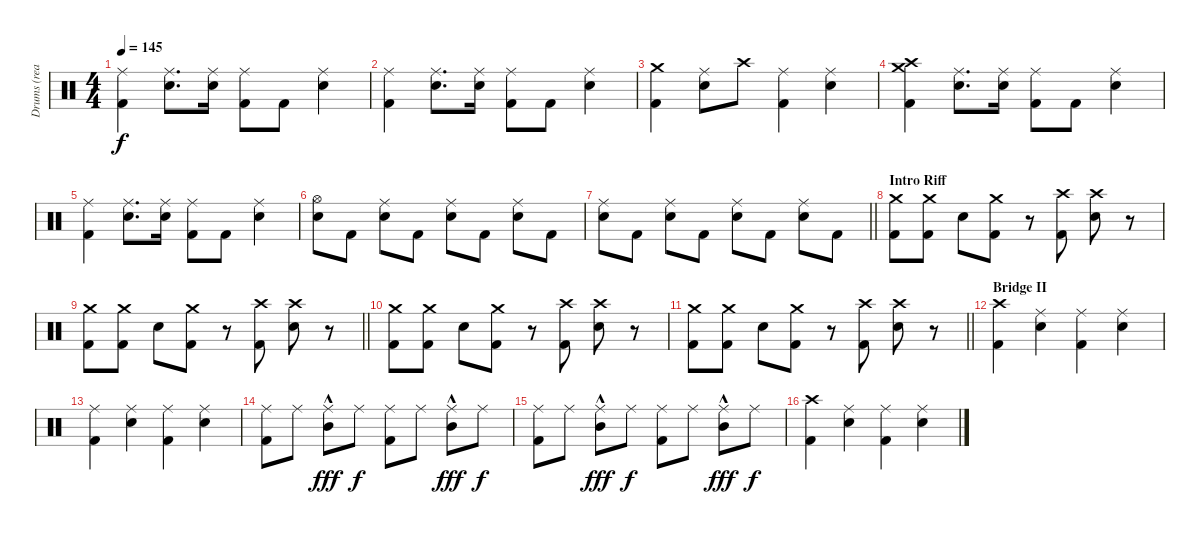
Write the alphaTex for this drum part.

\track ("Drums (real)" "Drums (rea") {instrument percussion}
\staff {score}
\articulation defaults
\ts (4 4)
\tempo 145
\clef neutral
\ks c
("Ride (middle)" "Kick (hit) 2").4{dy f} ("Ride (middle)" "Snare (hit) 2").8{d} ("Ride (middle)" "Snare (hit) 2").16 ("Ride (middle)" "Kick (hit) 2").8 "Kick (hit) 2".8 ("Ride (middle)" "Snare (hit) 2").4 |
("Ride (middle)" "Kick (hit) 2").4 ("Ride (middle)" "Snare (hit) 2").8{d} ("Ride (middle)" "Snare (hit) 2").16 ("Ride (middle)" "Kick (hit) 2").8 "Kick (hit) 2".8 ("Ride (middle)" "Snare (hit) 2").4 |
("Crash medium (hit)" "Kick (hit) 2").4 ("Ride (middle)" "Snare (hit) 2").8 "Crash high (hit)".8 ("Ride (middle)" "Kick (hit) 2").4 ("Ride (middle)" "Snare (hit) 2").4 |
("Crash high (hit)" "Crash medium (hit)" "Kick (hit) 2").4 ("Ride (middle)" "Snare (hit) 2").8{d} ("Ride (middle)" "Snare (hit) 2").16 ("Ride (middle)" "Kick (hit) 2").8 "Kick (hit) 2".8 ("Ride (middle)" "Snare (hit) 2").4 |
("Ride (middle)" "Kick (hit) 2").4 ("Ride (middle)" "Snare (hit) 2").8{d} ("Ride (middle)" "Snare (hit) 2").16 ("Ride (middle)" "Kick (hit) 2").8 "Kick (hit) 2".8 ("Ride (middle)" "Snare (hit) 2").4 |
("Hi-Hat (open)" "Snare (hit) 2").8 "Kick (hit) 2".8 ("Ride (middle)" "Snare (hit) 2").8 "Kick (hit) 2".8 ("Ride (middle)" "Snare (hit) 2").8 "Kick (hit) 2".8 ("Ride (middle)" "Snare (hit) 2").8 "Kick (hit) 2".8 |
\barLineRight lightlight
("Ride (middle)" "Snare (hit) 2").8 "Kick (hit) 2".8 ("Ride (middle)" "Snare (hit) 2").8 "Kick (hit) 2".8 ("Ride (middle)" "Snare (hit) 2").8 "Kick (hit) 2".8 ("Ride (middle)" "Snare (hit) 2").8 "Kick (hit) 2".8 |
\section ("" "Intro Riff")
("Crash medium (hit)" "Kick (hit) 2").8 ("Crash medium (hit)" "Kick (hit) 2").8 "Snare (hit) 2".8 ("Crash medium (hit)" "Kick (hit) 2").8 r.8 ("Crash high (hit)" "Kick (hit) 2").8 ("Crash high (hit)" "Snare (hit) 2").8 r.8 |
\barLineRight lightlight
("Crash medium (hit)" "Kick (hit) 2").8 ("Crash medium (hit)" "Kick (hit) 2").8 "Snare (hit) 2".8 ("Crash medium (hit)" "Kick (hit) 2").8 r.8 ("Crash high (hit)" "Kick (hit) 2").8 ("Crash high (hit)" "Snare (hit) 2").8 r.8 |
("Crash medium (hit)" "Kick (hit) 2").8 ("Crash medium (hit)" "Kick (hit) 2").8 "Snare (hit) 2".8 ("Crash medium (hit)" "Kick (hit) 2").8 r.8 ("Crash high (hit)" "Kick (hit) 2").8 ("Crash high (hit)" "Snare (hit) 2").8 r.8 |
\barLineRight lightlight
("Crash medium (hit)" "Kick (hit) 2").8 ("Crash medium (hit)" "Kick (hit) 2").8 "Snare (hit) 2".8 ("Crash medium (hit)" "Kick (hit) 2").8 r.8 ("Crash high (hit)" "Kick (hit) 2").8 ("Crash high (hit)" "Snare (hit) 2").8 r.8 |
\section ("" "Bridge II")
("Crash high (hit)" "Kick (hit) 2").4 ("Ride (middle)" "Snare (hit) 2").4 ("Ride (middle)" "Kick (hit) 2").4 ("Ride (middle)" "Snare (hit) 2").4 |
("Ride (middle)" "Kick (hit) 2").4 ("Ride (middle)" "Snare (hit) 2").4 ("Ride (middle)" "Kick (hit) 2").4 ("Ride (middle)" "Snare (hit) 2").4 |
("Ride (middle)" "Kick (hit) 2").8 "Ride (middle)".8 ("Ride (middle)" "Mid Tom (hit)"{hac}).8{dy fff} "Ride (middle)".8{dy f} ("Ride (middle)" "Kick (hit) 2").8 "Ride (middle)".8 ("Ride (middle)" "Mid Tom (hit)"{hac}).8{dy fff} "Ride (middle)".8{dy f} |
("Ride (middle)" "Kick (hit) 2").8 "Ride (middle)".8 ("Ride (middle)" "Mid Tom (hit)"{hac}).8{dy fff} "Ride (middle)".8{dy f} ("Ride (middle)" "Kick (hit) 2").8 "Ride (middle)".8 ("Ride (middle)" "Mid Tom (hit)"{hac}).8{dy fff} "Ride (middle)".8{dy f} |
("Crash high (hit)" "Kick (hit) 2").4 ("Ride (middle)" "Snare (hit) 2").4 ("Ride (middle)" "Kick (hit) 2").4 ("Ride (middle)" "Snare (hit) 2").4
